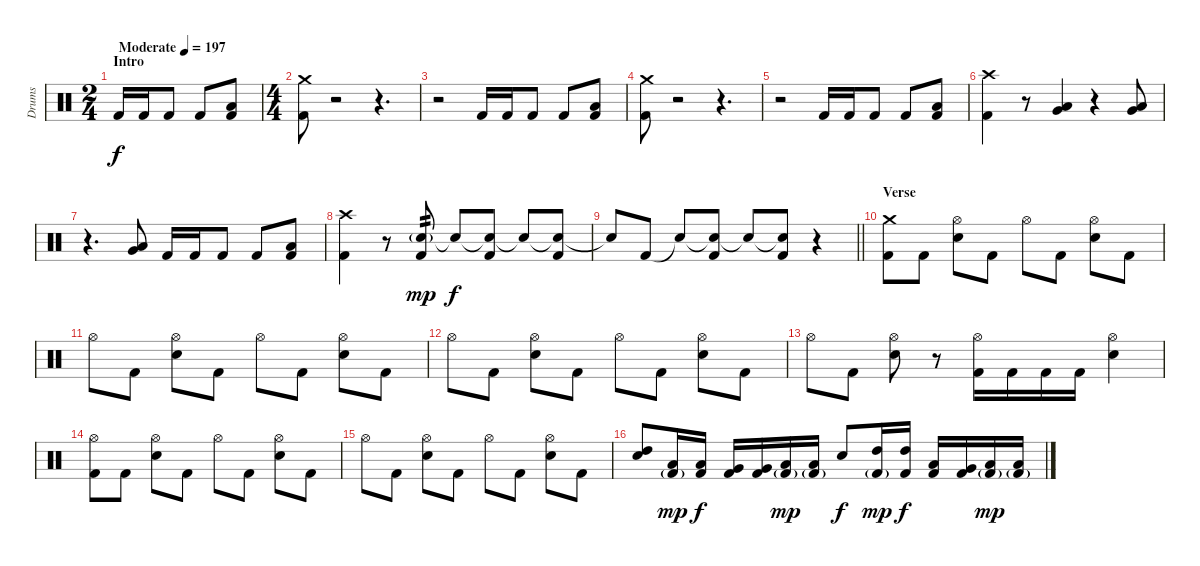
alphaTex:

\track ("Drums" "Drums") {instrument percussion}
\staff {score}
\articulation defaults
\ts (2 4)
\section ("" "Intro")
\tempo (197 "Moderate")
\clef neutral
\ks c "Kick (hit) 2".16{dy f} "Kick (hit) 2".16 "Kick (hit) 2".8 "Kick (hit) 2".8
("Low Floor Tom (hit)" "Kick (hit) 2").8 |
\ts (4 4)
("Crash medium (hit)" "Kick (hit) 2").8 r.2 r.4{d} |
r.2 "Kick (hit) 2".16 "Kick (hit) 2".16 "Kick (hit) 2".8 "Kick (hit) 2".8 ("Low Floor Tom (hit)" "Kick (hit) 2").8 |
("Crash medium (hit)" "Kick (hit) 2").8 r.2 r.4{d} |
r.2 "Kick (hit) 2".16 "Kick (hit) 2".16 "Kick (hit) 2".8 "Kick (hit) 2".8 ("Low Floor Tom (hit)" "Kick (hit) 2").8 |
("Crash high (hit)" "Kick (hit) 2").4 r.8 ("Very Low Tom (hit)" "Low Floor Tom (hit)").4 r.4 ("Very Low Tom (hit)" "Low Floor Tom (hit)").8 |
r.4{d} ("Very Low Tom (hit)" "Low Floor Tom (hit)").8 "Kick (hit) 2".16 "Kick (hit) 2".16 "Kick (hit) 2".8 "Kick (hit) 2".8 ("Low Floor Tom (hit)" "Kick (hit) 2").8 |
("Crash high (hit)" "Kick (hit) 2").4 r.8 ("Electric Snare (hit)"{g} "Kick (hit) 2").8{tp 2 dy mp} "Snare (hit)"{t}.8{dy f} ("Snare (hit)"{t} "Kick (hit) 2").8 "Snare (hit)"{t}.8 ("Snare (hit)"{t} "Kick (hit) 2").8 |
\barLineRight lightlight "Snare (hit)"{t}.8 "Kick (hit) 2".8 "Snare (hit)"{t}.8
("Snare (hit)"{t} "Kick (hit) 2").8 "Snare (hit)"{t}.8 ("Snare (hit)"{t} "Kick (hit) 2").8 r.4 |
\section ("" "Verse")
("Crash medium (hit)" "Kick (hit) 2").8 "Kick (hit) 2".8 ("Hi-Hat (open)" "Electric Snare (hit)").8 "Kick (hit) 2".8 "Hi-Hat (open)".8 "Kick (hit) 2".8 ("Hi-Hat (open)" "Electric Snare (hit)").8 "Kick (hit) 2".8 |
"Hi-Hat (open)".8 "Kick (hit) 2".8 ("Hi-Hat (open)" "Electric Snare (hit)").8 "Kick (hit) 2".8 "Hi-Hat (open)".8 "Kick (hit) 2".8 ("Hi-Hat (open)" "Electric Snare (hit)").8 "Kick (hit) 2".8 |
"Hi-Hat (open)".8 "Kick (hit) 2".8 ("Hi-Hat (open)" "Electric Snare (hit)").8 "Kick (hit) 2".8 "Hi-Hat (open)".8 "Kick (hit) 2".8 ("Hi-Hat (open)" "Electric Snare (hit)").8 "Kick (hit) 2".8 |
"Hi-Hat (open)".8 "Kick (hit) 2".8 ("Hi-Hat (open)" "Electric Snare (hit)").8 r.8 ("Hi-Hat (open)" "Kick (hit) 2").16 "Kick (hit) 2".16 "Kick (hit) 2".16 "Kick (hit) 2".16 ("Hi-Hat (open)" "Electric Snare (hit)").4 |
("Hi-Hat (open)" "Kick (hit) 2").8 "Kick (hit) 2".8 ("Hi-Hat (open)" "Electric Snare (hit)").8 "Kick (hit) 2".8 "Hi-Hat (open)".8 "Kick (hit) 2".8 ("Hi-Hat (open)" "Electric Snare (hit)").8 "Kick (hit) 2".8 |
"Hi-Hat (open)".8 "Kick (hit) 2".8 ("Hi-Hat (open)" "Electric Snare (hit)").8 "Kick (hit) 2".8 "Hi-Hat (open)".8 "Kick (hit) 2".8 ("Hi-Hat (open)" "Electric Snare (hit)").8 "Kick (hit) 2".8 |
("High Tom (hit)" "Electric Snare (hit)").8 ("Low Tom (hit)" "Kick (hit) 2"{g}).16{dy mp} ("Low Tom (hit)" "Kick (hit) 2").16{dy f} ("Very Low Tom (hit)" "Kick (hit) 2").16 ("Very Low Tom (hit)" "Kick (hit) 2").16 ("Low Floor Tom (hit)" "Kick (hit) 2"{g}).16{dy mp} ("Low Floor Tom (hit)" "Kick (hit) 2"{g}).16 "Electric Snare (hit)".8{dy f} ("High Tom (hit)" "Kick (hit) 2"{g}).16{dy mp} ("High Tom (hit)" "Kick (hit) 2").16{dy f} ("Low Tom (hit)" "Kick (hit) 2").16 ("Very Low Tom (hit)" "Kick (hit) 2").16 ("Low Floor Tom (hit)" "Kick (hit) 2"{g}).16{dy mp} ("Low Floor Tom (hit)" "Kick (hit) 2"{g}).16
